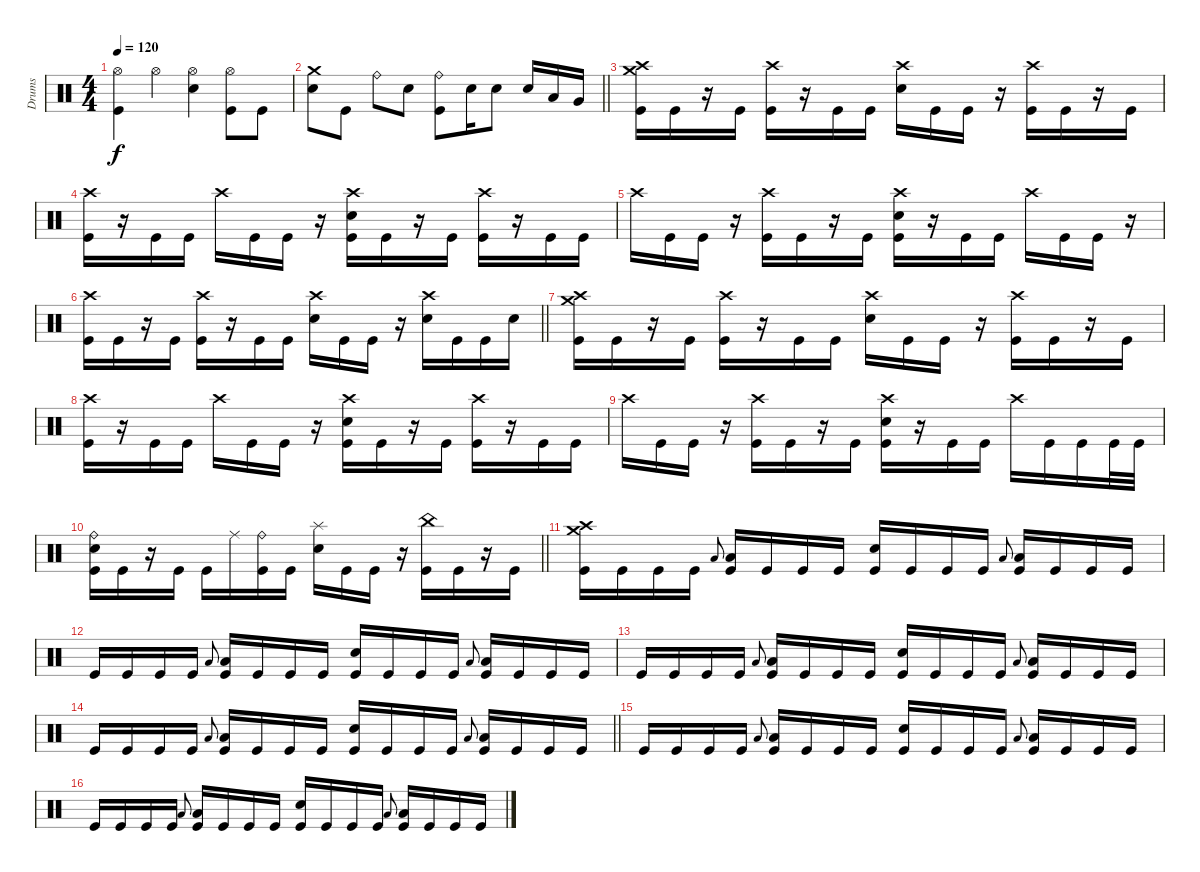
\track ("Drums" "Drums") {instrument percussion}
\staff
\articulation defaults
\ts (4 4)
\tempo 120
\clef neutral
\ks c
("Hi-Hat (open)" "Kick (hit)").4{dy f} "Hi-Hat (open)".4 ("Hi-Hat (open)" "Electric Snare (hit)").4 ("Hi-Hat (open)" "Kick (hit)").8 "Kick (hit)".8 |
\barLineRight lightlight
("Crash medium (hit)" "Electric Snare (hit)").8 "Kick (hit)".8 "Ride (bell)".8 "Electric Snare (hit)".8 ("Ride (bell)" "Kick (hit)").8 "Electric Snare (hit)".16 "Electric Snare (hit)".8 "Electric Snare (hit)".16 "Low Tom (hit)".16 "Very Low Tom (hit)".16 |
\section ("" "")
("Crash high (hit)" "Crash medium (hit)" "Kick (hit)").16 "Kick (hit)".16 r.16 "Kick (hit)".16 ("Crash high (hit)" "Kick (hit)").16 r.16 "Kick (hit)".16 "Kick (hit)".16 ("Crash high (hit)" "Electric Snare (hit)").16 "Kick (hit)".16 "Kick (hit)".16 r.16 ("Crash high (hit)" "Kick (hit)").16 "Kick (hit)".16 r.16 "Kick (hit)".16 |
("Crash high (hit)" "Kick (hit)").16 r.16 "Kick (hit)".16 "Kick (hit)".16 "Crash high (hit)".16 "Kick (hit)".16 "Kick (hit)".16 r.16 ("Crash high (hit)" "Electric Snare (hit)" "Kick (hit)").16 "Kick (hit)".16 r.16 "Kick (hit)".16 ("Crash high (hit)" "Kick (hit)").16 r.16 "Kick (hit)".16 "Kick (hit)".16 |
"Crash high (hit)".16 "Kick (hit)".16 "Kick (hit)".16 r.16 ("Crash high (hit)" "Kick (hit)").16 "Kick (hit)".16 r.16 "Kick (hit)".16 ("Crash high (hit)" "Electric Snare (hit)" "Kick (hit)").16 r.16 "Kick (hit)".16 "Kick (hit)".16 "Crash high (hit)".16 "Kick (hit)".16 "Kick (hit)".16 r.16 |
\barLineRight lightlight
("Crash high (hit)" "Kick (hit)").16 "Kick (hit)".16 r.16 "Kick (hit)".16 ("Crash high (hit)" "Kick (hit)").16 r.16 "Kick (hit)".16 "Kick (hit)".16 ("Crash high (hit)" "Electric Snare (hit)").16 "Kick (hit)".16 "Kick (hit)".16 r.16 ("Crash high (hit)" "Electric Snare (hit)").16 "Kick (hit)".16 "Kick (hit)".16 "Electric Snare (hit)".16 |
("Crash high (hit)" "Crash medium (hit)" "Kick (hit)").16 "Kick (hit)".16 r.16 "Kick (hit)".16 ("Crash high (hit)" "Kick (hit)").16 r.16 "Kick (hit)".16 "Kick (hit)".16 ("Crash high (hit)" "Electric Snare (hit)").16 "Kick (hit)".16 "Kick (hit)".16 r.16 ("Crash high (hit)" "Kick (hit)").16 "Kick (hit)".16 r.16 "Kick (hit)".16 |
("Crash high (hit)" "Kick (hit)").16 r.16 "Kick (hit)".16 "Kick (hit)".16 "Crash high (hit)".16 "Kick (hit)".16 "Kick (hit)".16 r.16 ("Crash high (hit)" "Electric Snare (hit)" "Kick (hit)").16 "Kick (hit)".16 r.16 "Kick (hit)".16 ("Crash high (hit)" "Kick (hit)").16 r.16 "Kick (hit)".16 "Kick (hit)".16 |
"Crash high (hit)".16 "Kick (hit)".16 "Kick (hit)".16 r.16 ("Crash high (hit)" "Kick (hit)").16 "Kick (hit)".16 r.16 "Kick (hit)".16 ("Crash high (hit)" "Electric Snare (hit)" "Kick (hit)").16 r.16 "Kick (hit)".16 "Kick (hit)".16 "Crash high (hit)".16 "Kick (hit)".16 "Kick (hit)".16 "Kick (hit)".32 "Kick (hit)".32 |
\barLineRight lightlight
("Ride (bell)" "Electric Snare (hit)" "Kick (hit)").16 "Kick (hit)".16 r.16 "Kick (hit)".16 "Kick (hit)".16 "Ride (middle)".16 ("Ride (bell)" "Kick (hit)").16 "Kick (hit)".16 ("Splash (hit)" "Electric Snare (hit)").16 "Kick (hit)".16 "Kick (hit)".16 r.16 ("China (hit)" "Kick (hit)").16 "Kick (hit)".16 r.16 "Kick (hit)".16 |
\section ("" "")
("Crash high (hit)" "Crash medium (hit)" "Kick (hit)").16 "Kick (hit)".16 "Kick (hit)".16 "Kick (hit)".16 "Low Floor Tom (hit)".8{gr onbeat} ("Low Floor Tom (hit)" "Kick (hit)").16 "Kick (hit)".16 "Kick (hit)".16 "Kick (hit)".16 ("Electric Snare (hit)" "Kick (hit)").16 "Kick (hit)".16 "Kick (hit)".16 "Kick (hit)".16 "Low Floor Tom (hit)".8{gr onbeat} ("Low Floor Tom (hit)" "Kick (hit)").16 "Kick (hit)".16 "Kick (hit)".16 "Kick (hit)".16 |
"Kick (hit)".16 "Kick (hit)".16 "Kick (hit)".16 "Kick (hit)".16 "Low Floor Tom (hit)".8{gr onbeat} ("Low Floor Tom (hit)" "Kick (hit)").16 "Kick (hit)".16 "Kick (hit)".16 "Kick (hit)".16 ("Electric Snare (hit)" "Kick (hit)").16 "Kick (hit)".16 "Kick (hit)".16 "Kick (hit)".16 "Low Floor Tom (hit)".8{gr onbeat} ("Low Floor Tom (hit)" "Kick (hit)").16 "Kick (hit)".16 "Kick (hit)".16 "Kick (hit)".16 |
"Kick (hit)".16 "Kick (hit)".16 "Kick (hit)".16 "Kick (hit)".16 "Low Floor Tom (hit)".8{gr onbeat} ("Low Floor Tom (hit)" "Kick (hit)").16 "Kick (hit)".16 "Kick (hit)".16 "Kick (hit)".16 ("Electric Snare (hit)" "Kick (hit)").16 "Kick (hit)".16 "Kick (hit)".16 "Kick (hit)".16 "Low Floor Tom (hit)".8{gr onbeat} ("Low Floor Tom (hit)" "Kick (hit)").16 "Kick (hit)".16 "Kick (hit)".16 "Kick (hit)".16 |
\barLineRight lightlight "Kick (hit)".16 "Kick (hit)".16 "Kick (hit)".16 "Kick (hit)".16 "Low Floor Tom (hit)".8{gr onbeat}
("Low Floor Tom (hit)" "Kick (hit)").16 "Kick (hit)".16 "Kick (hit)".16 "Kick (hit)".16 ("Electric Snare (hit)" "Kick (hit)").16 "Kick (hit)".16 "Kick (hit)".16 "Kick (hit)".16 "Low Floor Tom (hit)".8{gr onbeat} ("Low Floor Tom (hit)" "Kick (hit)").16 "Kick (hit)".16 "Kick (hit)".16 "Kick (hit)".16 |
"Kick (hit)".16 "Kick (hit)".16 "Kick (hit)".16 "Kick (hit)".16 "Low Floor Tom (hit)".8{gr onbeat} ("Low Floor Tom (hit)" "Kick (hit)").16 "Kick (hit)".16 "Kick (hit)".16 "Kick (hit)".16 ("Electric Snare (hit)" "Kick (hit)").16 "Kick (hit)".16 "Kick (hit)".16 "Kick (hit)".16 "Low Floor Tom (hit)".8{gr onbeat} ("Low Floor Tom (hit)" "Kick (hit)").16 "Kick (hit)".16 "Kick (hit)".16 "Kick (hit)".16 |
"Kick (hit)".16 "Kick (hit)".16 "Kick (hit)".16 "Kick (hit)".16 "Low Floor Tom (hit)".8{gr onbeat} ("Low Floor Tom (hit)" "Kick (hit)").16 "Kick (hit)".16 "Kick (hit)".16 "Kick (hit)".16 ("Electric Snare (hit)" "Kick (hit)").16 "Kick (hit)".16 "Kick (hit)".16 "Kick (hit)".16 "Low Floor Tom (hit)".8{gr onbeat} ("Low Floor Tom (hit)" "Kick (hit)").16 "Kick (hit)".16 "Kick (hit)".16 "Kick (hit)".16
